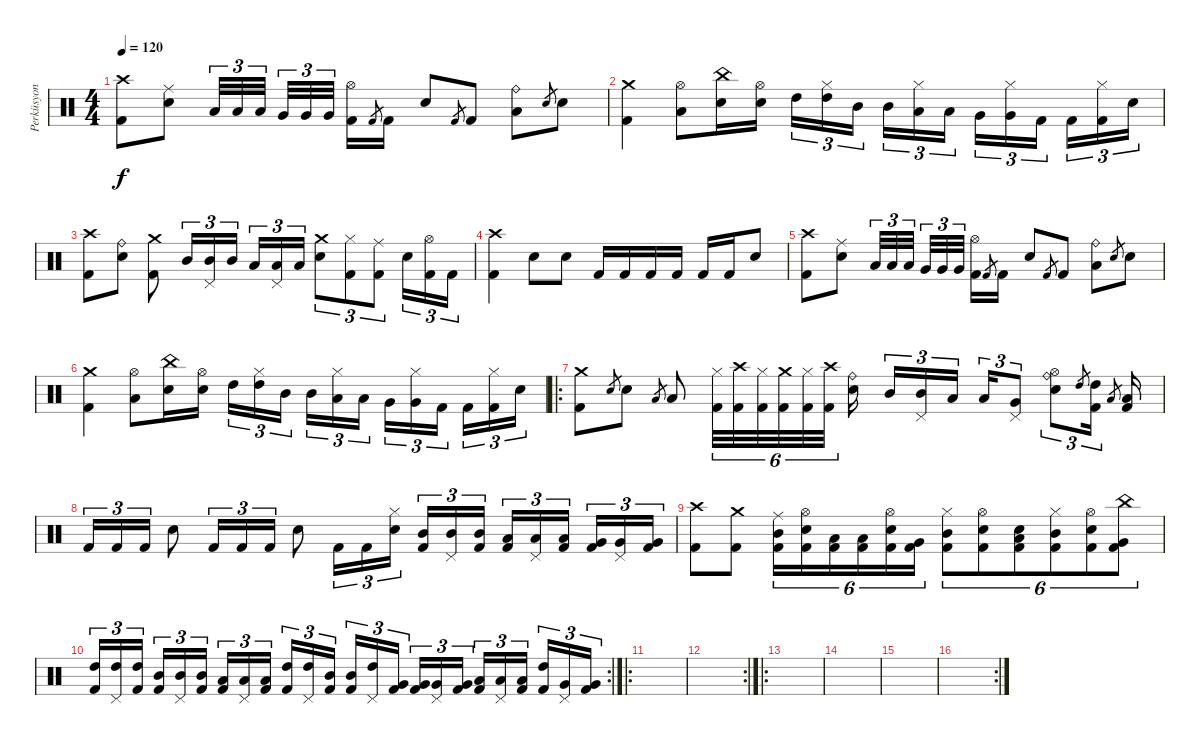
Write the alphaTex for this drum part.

\track ("Perküsyon" "Perküsyon") {instrument percussion}
\staff {score}
\articulation defaults
\ts (4 4)
\tempo 120
\clef neutral
\ks c
("Crash high (hit)" "Kick (hit) 2").8{dy f} ("Snare (hit) 2" "Ride (middle)").8 "Low Tom (hit)".32{tu (3 2)} "Low Tom (hit)".32{tu (3 2)} "Low Tom (hit)".32{tu (3 2)} "Very Low Tom (hit)".32{tu (3 2)} "Very Low Tom (hit)".32{tu (3 2)} "Very Low Tom (hit)".32{tu (3 2)} ("Hi-Hat (open)" "Kick (hit) 2").16 "Kick (hit) 2".8{gr} "Kick (hit) 2".16 "Snare (hit) 2".8 "Kick (hit) 2".8{gr} "Kick (hit) 2".8 ("Low Tom (hit)" "Ride (bell)").8 "Snare (hit) 2".8{gr} "Snare (hit) 2".8 |
("Crash medium (hit)" "Kick (hit) 2").4 ("Low Tom (hit)" "Hi-Hat (open)").8 ("Snare (hit) 2" "China (hit)").16 ("Snare (hit) 2" "Hi-Hat (open)").16 "High Tom (hit)".16{tu (3 2)} ("High Tom (hit)" "Hi-Hat (closed)").16{tu (3 2)} "Mid Tom (hit)".16{tu (3 2)} "Mid Tom (hit)".16{tu (3 2)} ("Low Tom (hit)" "Hi-Hat (closed)").16{tu (3 2)} "Low Tom (hit)".16{tu (3 2)} "Very Low Tom (hit)".16{tu (3 2)} ("Very Low Tom (hit)" "Hi-Hat (closed)").16{tu (3 2)} "Kick (hit) 2".16{tu (3 2)} "Kick (hit) 2".16{tu (3 2)} ("Kick (hit) 2" "Hi-Hat (closed)").16{tu (3 2)} "Snare (hit) 2".16{tu (3 2)} |
("Crash high (hit)" "Kick (hit) 2").8 ("Snare (hit) 2" "Ride (bell)").8 ("Crash medium (hit)" "Kick (hit) 2").8 "Mid Tom (hit)".16{tu (3 2)} ("Pedal Hi-Hat (hit)" "Mid Tom (hit)").16{tu (3 2)} "Mid Tom (hit)".16{tu (3 2)} "Low Tom (hit)".16{tu (3 2)} ("Pedal Hi-Hat (hit)" "Low Tom (hit)").16{tu (3 2)} "Low Tom (hit)".16{tu (3 2)} ("Crash medium (hit)" "Snare (hit) 2").8{tu (3 2)} ("Hi-Hat (closed)" "Kick (hit) 2").8{tu (3 2)} ("Ride (middle)" "Kick (hit) 2").8{tu (3 2)} "Snare (hit) 2".16{tu (3 2)} ("Hi-Hat (open)" "Kick (hit) 2").16{tu (3 2)} "Kick (hit) 2".16{tu (3 2)} |
("Crash high (hit)" "Kick (hit) 2").4 "Snare (hit) 2".8 "Snare (hit) 2".8 "Kick (hit) 2".16 "Kick (hit) 2".16 "Kick (hit) 2".16 "Kick (hit) 2".16 "Kick (hit) 2".16 "Kick (hit) 2".16 "Snare (hit) 2".8 |
("Crash high (hit)" "Kick (hit) 2").8 ("Snare (hit) 2" "Ride (middle)").8 "Low Tom (hit)".32{tu (3 2)} "Low Tom (hit)".32{tu (3 2)} "Low Tom (hit)".32{tu (3 2)} "Very Low Tom (hit)".32{tu (3 2)} "Very Low Tom (hit)".32{tu (3 2)} "Very Low Tom (hit)".32{tu (3 2)} ("Hi-Hat (open)" "Kick (hit) 2").16 "Kick (hit) 2".8{gr} "Kick (hit) 2".16 "Snare (hit) 2".8 "Kick (hit) 2".8{gr} "Kick (hit) 2".8 ("Low Tom (hit)" "Ride (bell)").8 "Snare (hit) 2".8{gr} "Snare (hit) 2".8 |
("Crash medium (hit)" "Kick (hit) 2").4 ("Low Tom (hit)" "Hi-Hat (open)").8 ("Snare (hit) 2" "China (hit)").16 ("Snare (hit) 2" "Hi-Hat (open)").16 "High Tom (hit)".16{tu (3 2)} ("High Tom (hit)" "Hi-Hat (closed)").16{tu (3 2)} "Mid Tom (hit)".16{tu (3 2)} "Mid Tom (hit)".16{tu (3 2)} ("Low Tom (hit)" "Hi-Hat (closed)").16{tu (3 2)} "Low Tom (hit)".16{tu (3 2)} "Very Low Tom (hit)".16{tu (3 2)} ("Very Low Tom (hit)" "Hi-Hat (closed)").16{tu (3 2)} "Kick (hit) 2".16{tu (3 2)} "Kick (hit) 2".16{tu (3 2)} ("Kick (hit) 2" "Hi-Hat (closed)").16{tu (3 2)} "Snare (hit) 2".16{tu (3 2)} |
\ro
("Crash medium (hit)" "Kick (hit) 2").8{volume 13} "Snare (hit) 2".8{gr} "Snare (hit) 2".8 "Low Tom (hit)".8{gr} "Low Tom (hit)".8 ("Hi-Hat (closed)" "Kick (hit) 2").32{tu (6 4)} ("Crash high (hit)" "Kick (hit) 2").32{tu (6 4)} ("Hi-Hat (closed)" "Kick (hit) 2").32{tu (6 4)} ("Crash medium (hit)" "Kick (hit) 2").32{tu (6 4)} ("Hi-Hat (closed)" "Kick (hit) 2").32{tu (6 4)} ("Crash high (hit)" "Kick (hit) 2").32{tu (6 4)} ("Ride (bell)" "Snare (hit) 2").16 "Mid Tom (hit)".16{tu (3 2)} ("Pedal Hi-Hat (hit)" "Mid Tom (hit)").16{tu (3 2)} "Low Tom (hit)".16{tu (3 2)} "Low Tom (hit)".16{tu (3 2)} ("Pedal Hi-Hat (hit)" "Very Low Tom (hit)").8{tu (3 2)} ("Ride (bell)" "Hi-Hat (open)" "Snare (hit) 2").8{tu (3 2)} "High Tom (hit)".8{gr} ("High Tom (hit)" "Kick (hit) 2").16{tu (3 2)} "Low Tom (hit)".8{gr} ("Low Tom (hit)" "Kick (hit) 2").16 |
"Kick (hit) 2".16{tu (3 2)} "Kick (hit) 2".16{tu (3 2)} "Kick (hit) 2".16{tu (3 2)} "Snare (hit) 2".8 "Kick (hit) 2".16{tu (3 2)} "Kick (hit) 2".16{tu (3 2)} "Kick (hit) 2".16{tu (3 2)} "Snare (hit) 2".8 "Kick (hit) 2".16{tu (3 2)} "Kick (hit) 2".16{tu (3 2)} ("Snare (hit) 2" "Hi-Hat (closed)").16{tu (3 2)} ("Mid Tom (hit)" "Kick (hit) 2").16{tu (3 2)} ("Mid Tom (hit)" "Pedal Hi-Hat (hit)").16{tu (3 2)} ("Mid Tom (hit)" "Kick (hit) 2").16{tu (3 2)} ("Low Tom (hit)" "Kick (hit) 2").16{tu (3 2)} ("Low Tom (hit)" "Pedal Hi-Hat (hit)").16{tu (3 2)} ("Low Tom (hit)" "Kick (hit) 2").16{tu (3 2)} ("Very Low Tom (hit)" "Kick (hit) 2").16{tu (3 2)} ("Very Low Tom (hit)" "Pedal Hi-Hat (hit)").16{tu (3 2)} ("Very Low Tom (hit)" "Kick (hit) 2").16{tu (3 2)} |
("Crash high (hit)" "Kick (hit) 2").8 ("Crash medium (hit)" "Kick (hit) 2").8 ("Mid Tom (hit)" "Ride (middle)" "Kick (hit) 2").16{tu (6 4)} ("Hi-Hat (open)" "Snare (hit) 2" "Kick (hit) 2").16{tu (6 4)} ("Low Tom (hit)" "Kick (hit) 2").16{tu (6 4)} ("Low Tom (hit)" "Kick (hit) 2").16{tu (6 4)} ("Hi-Hat (open)" "Snare (hit) 2" "Kick (hit) 2").16{tu (6 4)} ("Very Low Tom (hit)" "Kick (hit) 2").16{tu (6 4)} ("Hi-Hat (closed)" "Mid Tom (hit)" "Kick (hit) 2").8{tu (6 4)} ("Hi-Hat (open)" "Snare (hit) 2" "Kick (hit) 2").8{tu (6 4)} ("Low Tom (hit)" "Snare (hit) 2" "Kick (hit) 2").8{tu (6 4)} ("Hi-Hat (closed)" "Mid Tom (hit)" "Kick (hit) 2").8{tu (6 4)} ("Hi-Hat (open)" "Snare (hit) 2" "Kick (hit) 2").8{tu (6 4)} ("China (hit)" "Very Low Tom (hit)" "Kick (hit) 2").8{tu (6 4)} |
\rc 2
("Kick (hit) 2" "High Tom (hit)").16{tu (3 2)} ("Pedal Hi-Hat (hit)" "High Tom (hit)").16{tu (3 2)} ("Kick (hit) 2" "High Tom (hit)").16{tu (3 2)} ("Kick (hit) 2" "Mid Tom (hit)").16{tu (3 2)} ("Pedal Hi-Hat (hit)" "Mid Tom (hit)").16{tu (3 2)} ("Kick (hit) 2" "Mid Tom (hit)").16{tu (3 2)} ("Kick (hit) 2" "Low Tom (hit)").16{tu (3 2)} ("Pedal Hi-Hat (hit)" "Low Tom (hit)").16{tu (3 2)} ("Kick (hit) 2" "Low Tom (hit)").16{tu (3 2)} ("Kick (hit) 2" "High Tom (hit)").16{tu (3 2)} ("Pedal Hi-Hat (hit)" "High Tom (hit)").16{tu (3 2)} ("Kick (hit) 2" "Mid Tom (hit)").16{tu (3 2)} ("Kick (hit) 2" "Mid Tom (hit)").16{tu (3 2)} ("Pedal Hi-Hat (hit)" "High Tom (hit)").16{tu (3 2)} ("Kick (hit) 2" "Very Low Tom (hit)").16{tu (3 2)} ("Kick (hit) 2" "Very Low Tom (hit)").16{tu (3 2)} ("Pedal Hi-Hat (hit)" "Very Low Tom (hit)").16{tu (3 2)} ("Kick (hit) 2" "Very Low Tom (hit)").16{tu (3 2)} ("Kick (hit) 2" "Low Tom (hit)").16{tu (3 2)} ("Pedal Hi-Hat (hit)" "Low Tom (hit)").16{tu (3 2)} ("Kick (hit) 2" "Low Tom (hit)").16{tu (3 2)} ("Kick (hit) 2" "High Tom (hit)").16{tu (3 2)} ("Pedal Hi-Hat (hit)" "Very Low Tom (hit)").16{tu (3 2)} ("Kick (hit) 2" "Very Low Tom (hit)").16{tu (3 2)} |
\ro
|
\rc 2
|
\ro
|
|
|
\rc 2
